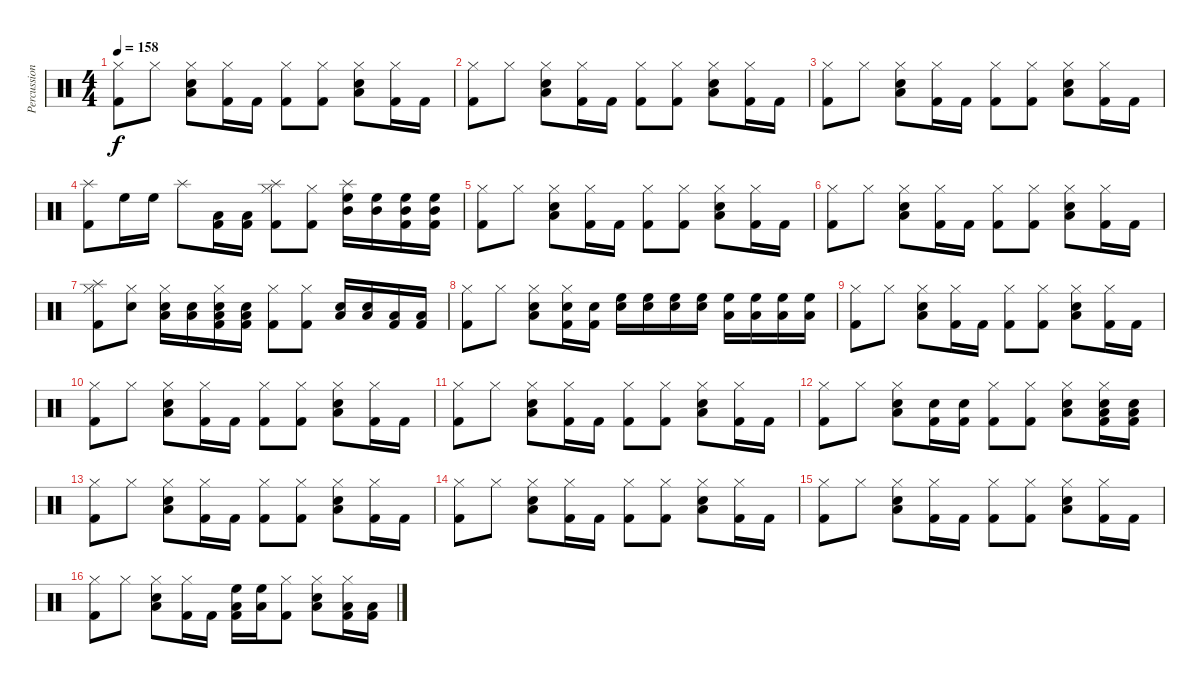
\track ("Percussion" "Percussion") {instrument percussion}
\staff {score}
\articulation defaults
\ts (4 4)
\tempo 158
\clef neutral
\ks c
("Hi-Hat (closed)" "Kick (hit) 2").8{dy f} "Hi-Hat (closed)".8 ("Hi-Hat (closed)" "Low Tom (hit)" "Snare (hit) 2").8 ("Hi-Hat (closed)" "Kick (hit) 2").16 "Kick (hit) 2".16 ("Kick (hit) 2" "Hi-Hat (closed)").8 ("Kick (hit) 2" "Hi-Hat (closed)").8 ("Snare (hit) 2" "Low Tom (hit)" "Hi-Hat (closed)").8 ("Kick (hit) 2" "Hi-Hat (closed)").16 "Kick (hit) 2".16 |
("Hi-Hat (closed)" "Kick (hit) 2").8 "Hi-Hat (closed)".8 ("Hi-Hat (closed)" "Low Tom (hit)" "Snare (hit) 2").8 ("Hi-Hat (closed)" "Kick (hit) 2").16 "Kick (hit) 2".16 ("Kick (hit) 2" "Hi-Hat (closed)").8 ("Kick (hit) 2" "Hi-Hat (closed)").8 ("Snare (hit) 2" "Low Tom (hit)" "Hi-Hat (closed)").8 ("Kick (hit) 2" "Hi-Hat (closed)").16 "Kick (hit) 2".16 |
("Hi-Hat (closed)" "Kick (hit) 2").8 "Hi-Hat (closed)".8 ("Hi-Hat (closed)" "Low Tom (hit)" "Snare (hit) 2").8 ("Hi-Hat (closed)" "Kick (hit) 2").16 "Kick (hit) 2".16 ("Kick (hit) 2" "Hi-Hat (closed)").8 ("Kick (hit) 2" "Hi-Hat (closed)").8 ("Snare (hit) 2" "Low Tom (hit)" "Hi-Hat (closed)").8 ("Kick (hit) 2" "Hi-Hat (closed)").16 "Kick (hit) 2".16 |
("Splash (hit)" "Kick (hit) 2").8 "High Floor Tom (hit)".16 "High Floor Tom (hit)".16 "Splash (hit)".8 ("Low Tom (hit)" "Kick (hit) 2").16 ("Kick (hit) 2" "Low Tom (hit)").16 ("Kick (hit) 2" "Hi-Hat (closed)" "Splash (hit)").8 ("Kick (hit) 2" "Hi-Hat (closed)").8 ("Mid Tom (hit)" "High Floor Tom (hit)" "Splash (hit)").16 ("Mid Tom (hit)" "High Floor Tom (hit)").16 ("Mid Tom (hit)" "Kick (hit) 2" "High Floor Tom (hit)").16 ("Mid Tom (hit)" "Kick (hit) 2" "High Floor Tom (hit)").16 |
("Hi-Hat (closed)" "Kick (hit) 2").8 "Hi-Hat (closed)".8 ("Hi-Hat (closed)" "Low Tom (hit)" "Snare (hit) 2").8 ("Hi-Hat (closed)" "Kick (hit) 2").16 "Kick (hit) 2".16 ("Kick (hit) 2" "Hi-Hat (closed)").8 ("Kick (hit) 2" "Hi-Hat (closed)").8 ("Snare (hit) 2" "Low Tom (hit)" "Hi-Hat (closed)").8 ("Kick (hit) 2" "Hi-Hat (closed)").16 "Kick (hit) 2".16 |
("Hi-Hat (closed)" "Kick (hit) 2").8 "Hi-Hat (closed)".8 ("Hi-Hat (closed)" "Low Tom (hit)" "Snare (hit) 2").8 ("Hi-Hat (closed)" "Kick (hit) 2").16 "Kick (hit) 2".16 ("Kick (hit) 2" "Hi-Hat (closed)").8 ("Kick (hit) 2" "Hi-Hat (closed)").8 ("Snare (hit) 2" "Low Tom (hit)" "Hi-Hat (closed)").8 ("Kick (hit) 2" "Hi-Hat (closed)").16 "Kick (hit) 2".16 |
("Hi-Hat (closed)" "Kick (hit) 2" "Splash (hit)").8 ("Hi-Hat (closed)" "Snare (hit) 2").8 ("Hi-Hat (closed)" "Low Tom (hit)" "Snare (hit) 2").16 ("Low Tom (hit)" "Snare (hit) 2").16 ("Hi-Hat (closed)" "Kick (hit) 2" "Low Tom (hit)" "Snare (hit) 2").16 ("Kick (hit) 2" "Low Tom (hit)" "Snare (hit) 2").16 ("Kick (hit) 2" "Hi-Hat (closed)").8 ("Kick (hit) 2" "Hi-Hat (closed)").8 ("Snare (hit) 2" "Low Tom (hit)").16 ("Snare (hit) 2" "Low Tom (hit)").16 ("Kick (hit) 2" "Low Tom (hit)").16 ("Kick (hit) 2" "Low Tom (hit)").16 |
("Hi-Hat (closed)" "Kick (hit) 2").8 "Hi-Hat (closed)".8 ("Hi-Hat (closed)" "Low Tom (hit)" "Snare (hit) 2").8 ("Hi-Hat (closed)" "Kick (hit) 2" "Snare (hit) 2").16 ("Kick (hit) 2" "Snare (hit) 2").16 ("High Floor Tom (hit)" "Snare (hit) 2").16 ("High Floor Tom (hit)" "Snare (hit) 2").16 ("High Floor Tom (hit)" "Snare (hit) 2").16 ("High Floor Tom (hit)" "Snare (hit) 2").16 ("High Floor Tom (hit)" "Low Tom (hit)").16 ("High Floor Tom (hit)" "Low Tom (hit)").16 ("High Floor Tom (hit)" "Low Tom (hit)").16 ("High Floor Tom (hit)" "Low Tom (hit)").16 |
("Hi-Hat (closed)" "Kick (hit) 2").8 "Hi-Hat (closed)".8 ("Hi-Hat (closed)" "Low Tom (hit)" "Snare (hit) 2").8 ("Hi-Hat (closed)" "Kick (hit) 2").16 "Kick (hit) 2".16 ("Kick (hit) 2" "Hi-Hat (closed)").8 ("Kick (hit) 2" "Hi-Hat (closed)").8 ("Snare (hit) 2" "Low Tom (hit)" "Hi-Hat (closed)").8 ("Kick (hit) 2" "Hi-Hat (closed)").16 "Kick (hit) 2".16 |
("Hi-Hat (closed)" "Kick (hit) 2").8 "Hi-Hat (closed)".8 ("Hi-Hat (closed)" "Low Tom (hit)" "Snare (hit) 2").8 ("Hi-Hat (closed)" "Kick (hit) 2").16 "Kick (hit) 2".16 ("Kick (hit) 2" "Hi-Hat (closed)").8 ("Kick (hit) 2" "Hi-Hat (closed)").8 ("Snare (hit) 2" "Low Tom (hit)" "Hi-Hat (closed)").8 ("Kick (hit) 2" "Hi-Hat (closed)").16 "Kick (hit) 2".16 |
("Hi-Hat (closed)" "Kick (hit) 2").8 "Hi-Hat (closed)".8 ("Hi-Hat (closed)" "Low Tom (hit)" "Snare (hit) 2").8 ("Hi-Hat (closed)" "Kick (hit) 2").16 "Kick (hit) 2".16 ("Kick (hit) 2" "Hi-Hat (closed)").8 ("Kick (hit) 2" "Hi-Hat (closed)").8 ("Snare (hit) 2" "Low Tom (hit)" "Hi-Hat (closed)").8 ("Kick (hit) 2" "Hi-Hat (closed)").16 "Kick (hit) 2".16 |
("Hi-Hat (closed)" "Kick (hit) 2").8 "Hi-Hat (closed)".8 ("Hi-Hat (closed)" "Low Tom (hit)" "Snare (hit) 2").8 ("Snare (hit) 2" "Kick (hit) 2").16 ("Kick (hit) 2" "Snare (hit) 2").16 ("Kick (hit) 2" "Hi-Hat (closed)").8 ("Kick (hit) 2" "Hi-Hat (closed)").8 ("Snare (hit) 2" "Low Tom (hit)" "Hi-Hat (closed)").8 ("Kick (hit) 2" "Hi-Hat (closed)" "Snare (hit) 2" "Low Tom (hit)").16 ("Kick (hit) 2" "Snare (hit) 2" "Low Tom (hit)").16 |
("Hi-Hat (closed)" "Kick (hit) 2").8 "Hi-Hat (closed)".8 ("Hi-Hat (closed)" "Low Tom (hit)" "Snare (hit) 2").8 ("Hi-Hat (closed)" "Kick (hit) 2").16 "Kick (hit) 2".16 ("Kick (hit) 2" "Hi-Hat (closed)").8 ("Kick (hit) 2" "Hi-Hat (closed)").8 ("Snare (hit) 2" "Low Tom (hit)" "Hi-Hat (closed)").8 ("Kick (hit) 2" "Hi-Hat (closed)").16 "Kick (hit) 2".16 |
("Hi-Hat (closed)" "Kick (hit) 2").8 "Hi-Hat (closed)".8 ("Hi-Hat (closed)" "Low Tom (hit)" "Snare (hit) 2").8 ("Hi-Hat (closed)" "Kick (hit) 2").16 "Kick (hit) 2".16 ("Kick (hit) 2" "Hi-Hat (closed)").8 ("Kick (hit) 2" "Hi-Hat (closed)").8 ("Snare (hit) 2" "Low Tom (hit)" "Hi-Hat (closed)").8 ("Kick (hit) 2" "Hi-Hat (closed)").16 "Kick (hit) 2".16 |
("Hi-Hat (closed)" "Kick (hit) 2").8 "Hi-Hat (closed)".8 ("Hi-Hat (closed)" "Low Tom (hit)" "Snare (hit) 2").8 ("Hi-Hat (closed)" "Kick (hit) 2").16 "Kick (hit) 2".16 ("Kick (hit) 2" "Hi-Hat (closed)").8 ("Kick (hit) 2" "Hi-Hat (closed)").8 ("Snare (hit) 2" "Low Tom (hit)" "Hi-Hat (closed)").8 ("Kick (hit) 2" "Hi-Hat (closed)").16 "Kick (hit) 2".16 |
("Hi-Hat (closed)" "Kick (hit) 2").8 "Hi-Hat (closed)".8 ("Hi-Hat (closed)" "Low Tom (hit)" "Snare (hit) 2").8 ("Hi-Hat (closed)" "Kick (hit) 2").16 "Kick (hit) 2".16 ("Low Tom (hit)" "High Floor Tom (hit)" "Kick (hit) 2").16 ("Low Tom (hit)" "High Floor Tom (hit)").16 ("Kick (hit) 2" "Hi-Hat (closed)").8 ("Snare (hit) 2" "Low Tom (hit)" "Hi-Hat (closed)").8 ("Kick (hit) 2" "Hi-Hat (closed)" "Low Tom (hit)").16 ("Kick (hit) 2" "Low Tom (hit)").16
